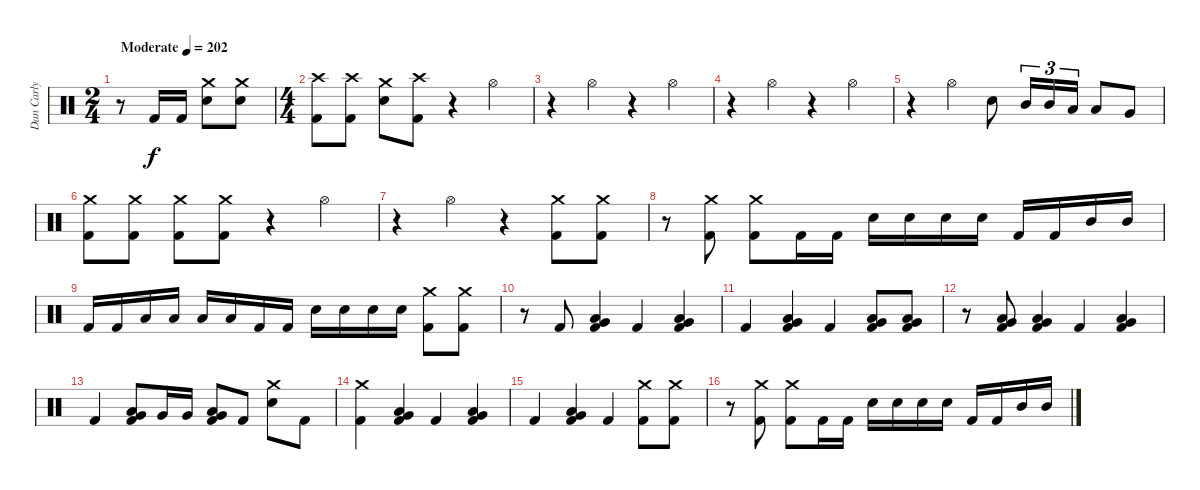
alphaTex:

\track ("Dan Carly" "Dan Carly") {instrument percussion}
\staff {score}
\articulation defaults
\ts (2 4)
\tempo (202 "Moderate")
\clef neutral
\ks c
r.8{dy f} "Kick (hit) 2".16 "Kick (hit) 2".16 ("Crash medium (hit)" "Electric Snare (hit)").8 ("Crash medium (hit)" "Electric Snare (hit)").8 |
\ts (4 4)
("Crash high (hit)" "Kick (hit) 2").8 ("Crash high (hit)" "Kick (hit) 2").8 ("Crash medium (hit)" "Electric Snare (hit)").8 ("Crash high (hit)" "Kick (hit) 2").8 r.4 "Hi-Hat (open)".4 |
r.4 "Hi-Hat (open)".4 r.4 "Hi-Hat (open)".4 |
r.4 "Hi-Hat (open)".4 r.4 "Hi-Hat (open)".4 |
r.4 "Hi-Hat (open)".4 "Electric Snare (hit)".8 "Mid Tom (hit)".16{tu (3 2)} "Mid Tom (hit)".16{tu (3 2)} "Low Tom (hit)".16{tu (3 2)} "Low Tom (hit)".8 "Very Low Tom (hit)".8 |
("Crash medium (hit)" "Kick (hit) 2").8 ("Crash medium (hit)" "Kick (hit) 2").8 ("Crash medium (hit)" "Kick (hit) 2").8 ("Crash medium (hit)" "Kick (hit) 2").8 r.4 "Hi-Hat (open)".4 |
r.4 "Hi-Hat (open)".4 r.4 ("Crash medium (hit)" "Kick (hit) 2").8 ("Crash medium (hit)" "Kick (hit) 2").8 |
r.8 ("Crash medium (hit)" "Kick (hit) 2").8 ("Crash medium (hit)" "Kick (hit) 2").8 "Kick (hit) 2".16 "Kick (hit) 2".16 "Electric Snare (hit)".16 "Electric Snare (hit)".16 "Electric Snare (hit)".16 "Electric Snare (hit)".16 "Kick (hit) 2".16 "Kick (hit) 2".16 "Mid Tom (hit)".16 "Mid Tom (hit)".16 |
"Kick (hit) 2".16 "Kick (hit) 2".16 "Low Tom (hit)".16 "Low Tom (hit)".16 "Low Tom (hit)".16 "Low Tom (hit)".16 "Kick (hit) 2".16 "Kick (hit) 2".16 "Electric Snare (hit)".16 "Electric Snare (hit)".16 "Electric Snare (hit)".16 "Electric Snare (hit)".16 ("Crash medium (hit)" "Kick (hit) 2").8 ("Crash medium (hit)" "Kick (hit) 2").8 |
r.8 "Kick (hit) 2".8 ("Very Low Tom (hit)" "Low Floor Tom (hit)" "Kick (hit) 2").4 "Kick (hit) 2".4 ("Very Low Tom (hit)" "Low Floor Tom (hit)" "Kick (hit) 2").4 |
"Kick (hit) 2".4 ("Very Low Tom (hit)" "Low Floor Tom (hit)" "Kick (hit) 2").4 "Kick (hit) 2".4 ("Very Low Tom (hit)" "Low Floor Tom (hit)" "Kick (hit) 2").8 ("Very Low Tom (hit)" "Low Floor Tom (hit)" "Kick (hit) 2").8 |
r.8 ("Very Low Tom (hit)" "Low Floor Tom (hit)" "Kick (hit) 2").8 ("Very Low Tom (hit)" "Low Floor Tom (hit)" "Kick (hit) 2").4 "Kick (hit) 2".4 ("Very Low Tom (hit)" "Low Floor Tom (hit)" "Kick (hit) 2").4 |
"Kick (hit) 2".4 ("Very Low Tom (hit)" "Low Floor Tom (hit)" "Kick (hit) 2").8 "Very Low Tom (hit)".16 "Very Low Tom (hit)".16 ("Very Low Tom (hit)" "Low Floor Tom (hit)" "Kick (hit) 2").8 "Kick (hit) 2".8 ("Crash medium (hit)" "Electric Snare (hit)").8 "Kick (hit) 2".8 |
("Crash medium (hit)" "Kick (hit) 2").4 ("Very Low Tom (hit)" "Low Floor Tom (hit)" "Kick (hit) 2").4 "Kick (hit) 2".4 ("Very Low Tom (hit)" "Low Floor Tom (hit)" "Kick (hit) 2").4 |
"Kick (hit) 2".4 ("Very Low Tom (hit)" "Low Floor Tom (hit)" "Kick (hit) 2").4 "Kick (hit) 2".4 ("Crash medium (hit)" "Kick (hit) 2").8 ("Crash medium (hit)" "Kick (hit) 2").8 |
r.8 ("Crash medium (hit)" "Kick (hit) 2").8 ("Crash medium (hit)" "Kick (hit) 2").8 "Kick (hit) 2".16 "Kick (hit) 2".16 "Electric Snare (hit)".16 "Electric Snare (hit)".16 "Electric Snare (hit)".16 "Electric Snare (hit)".16 "Kick (hit) 2".16 "Kick (hit) 2".16 "Mid Tom (hit)".16 "Mid Tom (hit)".16
